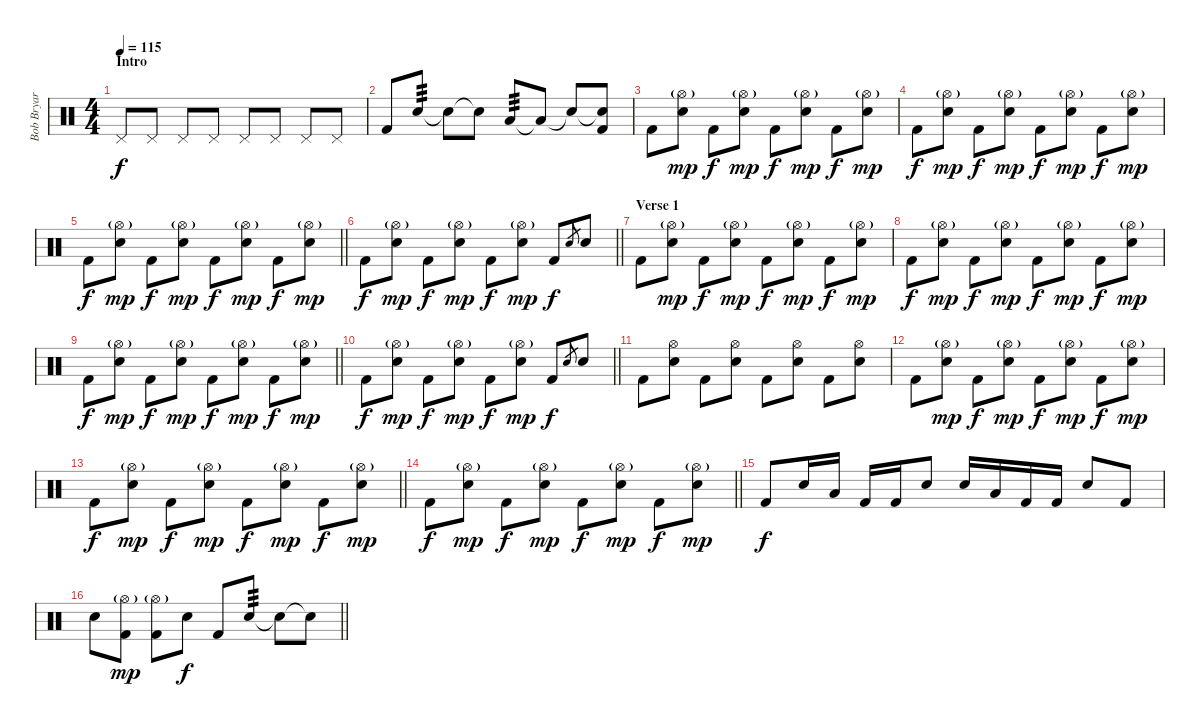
\track ("Bob Bryar" "Bob Bryar") {instrument percussion}
\staff {score}
\articulation defaults
\ts (4 4)
\section ("" "Intro")
\tempo 115
\tempo 105
\tempo 115
\clef neutral
\ks c "Pedal Hi-Hat (hit)".8{dy f} "Pedal Hi-Hat (hit)".8 "Pedal Hi-Hat (hit)".8 "Pedal Hi-Hat (hit)".8 "Pedal Hi-Hat (hit)".8 "Pedal Hi-Hat (hit)".8 "Pedal Hi-Hat (hit)".8 "Pedal Hi-Hat (hit)".8
|
"Kick (hit) 2".8{volume 16} "Snare (hit) 2".8{tp 3} "Snare (hit)"{t}.8 "Snare (hit)"{t}.8 "Low Tom (hit)".8{tp 3} "Low Tom (hit)"{t}.8 "Snare (hit)"{t}.8 ("Snare (hit)"{t} "Kick (hit) 2").8 |
"Kick (hit) 2".8{volume 14} ("Hi-Hat (open)"{g} "Electric Snare (hit)").8{dy mp} "Kick (hit) 2".8{dy f} ("Hi-Hat (open)"{g} "Electric Snare (hit)").8{dy mp} "Kick (hit) 2".8{dy f} ("Hi-Hat (open)"{g} "Electric Snare (hit)").8{dy mp} "Kick (hit) 2".8{dy f} ("Hi-Hat (open)"{g} "Electric Snare (hit)").8{dy mp} |
"Kick (hit) 2".8{dy f} ("Hi-Hat (open)"{g} "Electric Snare (hit)").8{dy mp} "Kick (hit) 2".8{dy f} ("Hi-Hat (open)"{g} "Electric Snare (hit)").8{dy mp} "Kick (hit) 2".8{dy f} ("Hi-Hat (open)"{g} "Electric Snare (hit)").8{dy mp} "Kick (hit) 2".8{dy f} ("Hi-Hat (open)"{g} "Electric Snare (hit)").8{dy mp} |
\barLineRight lightlight "Kick (hit) 2".8{dy f}
("Hi-Hat (open)"{g} "Electric Snare (hit)").8{dy mp} "Kick (hit) 2".8{dy f} ("Hi-Hat (open)"{g} "Electric Snare (hit)").8{dy mp} "Kick (hit) 2".8{dy f} ("Hi-Hat (open)"{g} "Electric Snare (hit)").8{dy mp} "Kick (hit) 2".8{dy f} ("Hi-Hat (open)"{g} "Electric Snare (hit)").8{dy mp} |
\barLineRight lightlight "Kick (hit) 2".8{dy f}
("Hi-Hat (open)"{g} "Electric Snare (hit)").8{dy mp} "Kick (hit) 2".8{dy f} ("Hi-Hat (open)"{g} "Electric Snare (hit)").8{dy mp} "Kick (hit) 2".8{dy f} ("Hi-Hat (open)"{g} "Electric Snare (hit)").8{dy mp} "Kick (hit) 2".8{dy f} "Electric Snare (hit)".8{gr} "Electric Snare (hit)".8 |
\section ("" "Verse 1")
"Kick (hit) 2".8 ("Hi-Hat (open)"{g} "Electric Snare (hit)").8{dy mp} "Kick (hit) 2".8{dy f} ("Hi-Hat (open)"{g} "Electric Snare (hit)").8{dy mp} "Kick (hit) 2".8{dy f} ("Hi-Hat (open)"{g} "Electric Snare (hit)").8{dy mp} "Kick (hit) 2".8{dy f} ("Hi-Hat (open)"{g} "Electric Snare (hit)").8{dy mp} |
"Kick (hit) 2".8{dy f} ("Hi-Hat (open)"{g} "Electric Snare (hit)").8{dy mp} "Kick (hit) 2".8{dy f} ("Hi-Hat (open)"{g} "Electric Snare (hit)").8{dy mp} "Kick (hit) 2".8{dy f} ("Hi-Hat (open)"{g} "Electric Snare (hit)").8{dy mp} "Kick (hit) 2".8{dy f} ("Hi-Hat (open)"{g} "Electric Snare (hit)").8{dy mp} |
\barLineRight lightlight "Kick (hit) 2".8{dy f}
("Hi-Hat (open)"{g} "Electric Snare (hit)").8{dy mp} "Kick (hit) 2".8{dy f} ("Hi-Hat (open)"{g} "Electric Snare (hit)").8{dy mp} "Kick (hit) 2".8{dy f} ("Hi-Hat (open)"{g} "Electric Snare (hit)").8{dy mp} "Kick (hit) 2".8{dy f} ("Hi-Hat (open)"{g} "Electric Snare (hit)").8{dy mp} |
\barLineRight lightlight "Kick (hit) 2".8{dy f}
("Hi-Hat (open)"{g} "Electric Snare (hit)").8{dy mp} "Kick (hit) 2".8{dy f} ("Hi-Hat (open)"{g} "Electric Snare (hit)").8{dy mp} "Kick (hit) 2".8{dy f} ("Hi-Hat (open)"{g} "Electric Snare (hit)").8{dy mp} "Kick (hit) 2".8{dy f} "Electric Snare (hit)".8{gr} "Electric Snare (hit)".8 |
"Kick (hit) 2".8 ("Hi-Hat (open)" "Electric Snare (hit)").8 "Kick (hit) 2".8 ("Hi-Hat (open)" "Electric Snare (hit)").8 "Kick (hit) 2".8 ("Hi-Hat (open)" "Electric Snare (hit)").8 "Kick (hit) 2".8 ("Hi-Hat (open)" "Electric Snare (hit)").8 |
"Kick (hit) 2".8 ("Hi-Hat (open)"{g} "Electric Snare (hit)").8{dy mp} "Kick (hit) 2".8{dy f} ("Hi-Hat (open)"{g} "Electric Snare (hit)").8{dy mp} "Kick (hit) 2".8{dy f} ("Hi-Hat (open)"{g} "Electric Snare (hit)").8{dy mp} "Kick (hit) 2".8{dy f} ("Hi-Hat (open)"{g} "Electric Snare (hit)").8{dy mp} |
\barLineRight lightlight "Kick (hit) 2".8{dy f}
("Hi-Hat (open)"{g} "Electric Snare (hit)").8{dy mp} "Kick (hit) 2".8{dy f} ("Hi-Hat (open)"{g} "Electric Snare (hit)").8{dy mp} "Kick (hit) 2".8{dy f} ("Hi-Hat (open)"{g} "Electric Snare (hit)").8{dy mp} "Kick (hit) 2".8{dy f} ("Hi-Hat (open)"{g} "Electric Snare (hit)").8{dy mp} |
\barLineRight lightlight "Kick (hit) 2".8{dy f}
("Hi-Hat (open)"{g} "Electric Snare (hit)").8{dy mp} "Kick (hit) 2".8{dy f} ("Hi-Hat (open)"{g} "Electric Snare (hit)").8{dy mp} "Kick (hit) 2".8{dy f} ("Hi-Hat (open)"{g} "Electric Snare (hit)").8{dy mp} "Kick (hit) 2".8{dy f} ("Hi-Hat (open)"{g} "Electric Snare (hit)").8{dy mp} |
"Kick (hit) 2".8{dy f} "Electric Snare (hit)".16 "Low Tom (hit)".16 "Kick (hit) 2".16 "Kick (hit) 2".16 "Electric Snare (hit)".8 "Electric Snare (hit)".16 "Low Tom (hit)".16 "Kick (hit) 2".16 "Kick (hit) 2".16 "Electric Snare (hit)".8 "Kick (hit) 2".8 |
\barLineRight lightlight "Electric Snare (hit)".8
("Hi-Hat (open)"{g} "Kick (hit) 2").8{dy mp} ("Hi-Hat (open)"{g} "Kick (hit) 2").8 "Electric Snare (hit)".8{dy f} "Kick (hit) 2".8 "Electric Snare (hit)".8{tp 3} "Snare (hit)"{t}.8 "Snare (hit)"{t}.8
